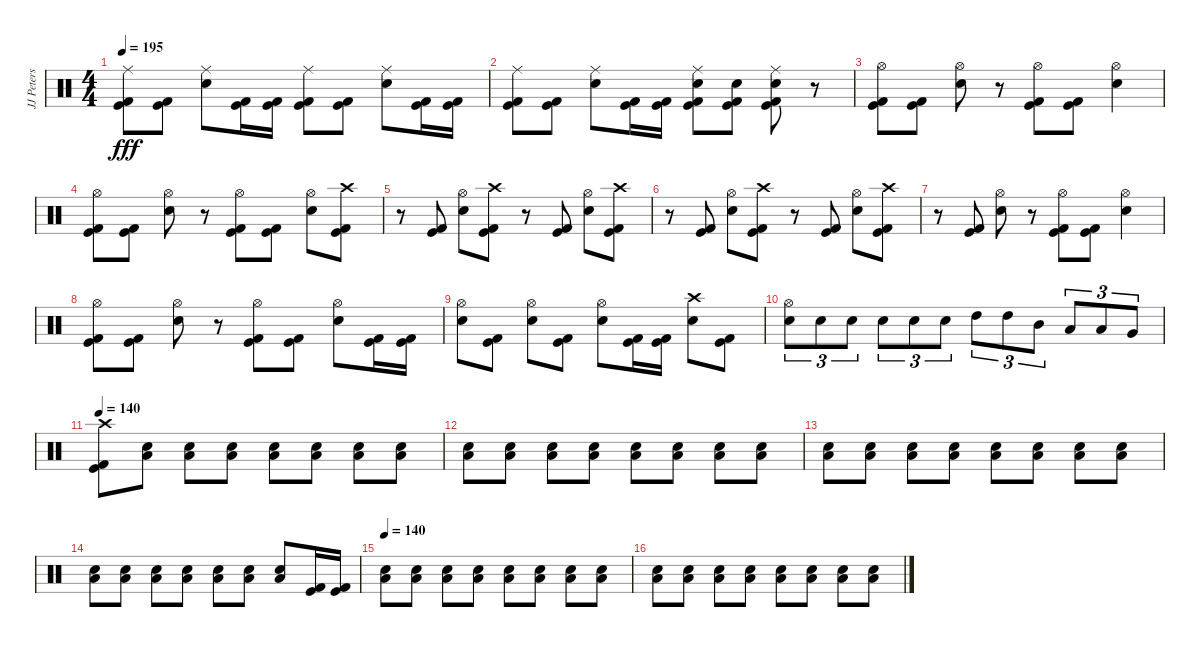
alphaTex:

\track ("JJ Peters" "JJ Peters") {instrument percussion}
\staff {score}
\articulation defaults
\ts (4 4)
\tempo 195
\clef neutral
\ks c
("Ride (middle)" "Kick (hit)" "Kick (hit) 2").8{dy fff} ("Kick (hit)" "Kick (hit) 2").8 ("Ride (middle)" "Electric Snare (hit)").8 ("Kick (hit)" "Kick (hit) 2").16 ("Kick (hit)" "Kick (hit) 2").16 ("Ride (middle)" "Kick (hit)" "Kick (hit) 2").8 ("Kick (hit)" "Kick (hit) 2").8 ("Ride (middle)" "Electric Snare (hit)").8 ("Kick (hit)" "Kick (hit) 2").16 ("Kick (hit)" "Kick (hit) 2").16 |
("Ride (middle)" "Kick (hit)" "Kick (hit) 2").8 ("Kick (hit)" "Kick (hit) 2").8 ("Ride (middle)" "Electric Snare (hit)").8 ("Kick (hit)" "Kick (hit) 2").16 ("Kick (hit)" "Kick (hit) 2").16 ("Ride (middle)" "Electric Snare (hit)" "Kick (hit)" "Kick (hit) 2").8 ("Electric Snare (hit)" "Kick (hit)" "Kick (hit) 2").8 ("Ride (middle)" "Electric Snare (hit)" "Kick (hit)" "Kick (hit) 2").8 r.8 |
("Hi-Hat (open)" "Kick (hit)" "Kick (hit) 2").8 ("Kick (hit)" "Kick (hit) 2").8 ("Hi-Hat (open)" "Electric Snare (hit)").8 r.8 ("Hi-Hat (open)" "Kick (hit)" "Kick (hit) 2").8 ("Kick (hit)" "Kick (hit) 2").8 ("Hi-Hat (open)" "Electric Snare (hit)").4 |
("Hi-Hat (open)" "Kick (hit)" "Kick (hit) 2").8 ("Kick (hit)" "Kick (hit) 2").8 ("Hi-Hat (open)" "Electric Snare (hit)").8 r.8 ("Hi-Hat (open)" "Kick (hit)" "Kick (hit) 2").8 ("Kick (hit)" "Kick (hit) 2").8 ("Hi-Hat (open)" "Electric Snare (hit)").8 ("Crash high (hit)" "Kick (hit)" "Kick (hit) 2").8 |
r.8 ("Kick (hit)" "Kick (hit) 2").8 ("Hi-Hat (open)" "Electric Snare (hit)").8 ("Crash high (hit)" "Kick (hit)" "Kick (hit) 2").8 r.8 ("Kick (hit)" "Kick (hit) 2").8 ("Hi-Hat (open)" "Electric Snare (hit)").8 ("Crash high (hit)" "Kick (hit)" "Kick (hit) 2").8 |
r.8 ("Kick (hit)" "Kick (hit) 2").8 ("Hi-Hat (open)" "Electric Snare (hit)").8 ("Crash high (hit)" "Kick (hit)" "Kick (hit) 2").8 r.8 ("Kick (hit)" "Kick (hit) 2").8 ("Hi-Hat (open)" "Electric Snare (hit)").8 ("Crash high (hit)" "Kick (hit)" "Kick (hit) 2").8 |
r.8 ("Kick (hit)" "Kick (hit) 2").8 ("Hi-Hat (open)" "Electric Snare (hit)").8 r.8 ("Hi-Hat (open)" "Kick (hit)" "Kick (hit) 2").8 ("Kick (hit)" "Kick (hit) 2").8 ("Hi-Hat (open)" "Electric Snare (hit)").4 |
("Hi-Hat (open)" "Kick (hit)" "Kick (hit) 2").8 ("Kick (hit)" "Kick (hit) 2").8 ("Hi-Hat (open)" "Electric Snare (hit)").8 r.8 ("Hi-Hat (open)" "Kick (hit)" "Kick (hit) 2").8 ("Kick (hit)" "Kick (hit) 2").8 ("Hi-Hat (open)" "Electric Snare (hit)").8 ("Kick (hit)" "Kick (hit) 2").16 ("Kick (hit)" "Kick (hit) 2").16 |
("Hi-Hat (open)" "Electric Snare (hit)").8 ("Kick (hit)" "Kick (hit) 2").8 ("Hi-Hat (open)" "Electric Snare (hit)").8 ("Kick (hit)" "Kick (hit) 2").8 ("Hi-Hat (open)" "Electric Snare (hit)").8 ("Kick (hit)" "Kick (hit) 2").16 ("Kick (hit)" "Kick (hit) 2").16 ("Crash high (hit)" "Electric Snare (hit)").8 ("Kick (hit)" "Kick (hit) 2").8 |
("Hi-Hat (open)" "Electric Snare (hit)").8{tu (3 2)} "Electric Snare (hit)".8{tu (3 2)} "Electric Snare (hit)".8{tu (3 2)} "Electric Snare (hit)".8{tu (3 2)} "Electric Snare (hit)".8{tu (3 2)} "Electric Snare (hit)".8{tu (3 2)} "High Tom (hit)".8{tu (3 2)} "High Tom (hit)".8{tu (3 2)} "Mid Tom (hit)".8{tu (3 2)} "Low Tom (hit)".8{tu (3 2)} "Low Tom (hit)".8{tu (3 2)} "Very Low Tom (hit)".8{tu (3 2)} |
\tempo 140
("Crash high (hit)" "Kick (hit)" "Kick (hit) 2").8 ("Low Tom (hit)" "Electric Snare (hit)").8{volume 6} ("Low Tom (hit)" "Electric Snare (hit)").8{volume 7} ("Low Tom (hit)" "Electric Snare (hit)").8{volume 8} ("Low Tom (hit)" "Electric Snare (hit)").8{volume 9} ("Low Tom (hit)" "Electric Snare (hit)").8{volume 10} ("Low Tom (hit)" "Electric Snare (hit)").8{volume 11} ("Low Tom (hit)" "Electric Snare (hit)").8{volume 12} |
("Low Tom (hit)" "Electric Snare (hit)").8{volume 13} ("Low Tom (hit)" "Electric Snare (hit)").8 ("Low Tom (hit)" "Electric Snare (hit)").8 ("Low Tom (hit)" "Electric Snare (hit)").8 ("Low Tom (hit)" "Electric Snare (hit)").8 ("Low Tom (hit)" "Electric Snare (hit)").8 ("Low Tom (hit)" "Electric Snare (hit)").8 ("Low Tom (hit)" "Electric Snare (hit)").8 |
("Low Tom (hit)" "Electric Snare (hit)").8 ("Low Tom (hit)" "Electric Snare (hit)").8 ("Low Tom (hit)" "Electric Snare (hit)").8 ("Low Tom (hit)" "Electric Snare (hit)").8 ("Low Tom (hit)" "Electric Snare (hit)").8 ("Low Tom (hit)" "Electric Snare (hit)").8 ("Low Tom (hit)" "Electric Snare (hit)").8 ("Low Tom (hit)" "Electric Snare (hit)").8 |
("Low Tom (hit)" "Electric Snare (hit)").8 ("Low Tom (hit)" "Electric Snare (hit)").8 ("Low Tom (hit)" "Electric Snare (hit)").8 ("Low Tom (hit)" "Electric Snare (hit)").8 ("Low Tom (hit)" "Electric Snare (hit)").8 ("Low Tom (hit)" "Electric Snare (hit)").8 ("Low Tom (hit)" "Electric Snare (hit)").8 ("Kick (hit)" "Kick (hit) 2").16 ("Kick (hit)" "Kick (hit) 2").16 |
\tempo 140
("Low Tom (hit)" "Electric Snare (hit)").8 ("Low Tom (hit)" "Electric Snare (hit)").8 ("Low Tom (hit)" "Electric Snare (hit)").8 ("Low Tom (hit)" "Electric Snare (hit)").8 ("Low Tom (hit)" "Electric Snare (hit)").8 ("Low Tom (hit)" "Electric Snare (hit)").8 ("Low Tom (hit)" "Electric Snare (hit)").8 ("Low Tom (hit)" "Electric Snare (hit)").8 |
("Low Tom (hit)" "Electric Snare (hit)").8 ("Low Tom (hit)" "Electric Snare (hit)").8 ("Low Tom (hit)" "Electric Snare (hit)").8 ("Low Tom (hit)" "Electric Snare (hit)").8 ("Low Tom (hit)" "Electric Snare (hit)").8 ("Low Tom (hit)" "Electric Snare (hit)").8 ("Low Tom (hit)" "Electric Snare (hit)").8 ("Low Tom (hit)" "Electric Snare (hit)").8
